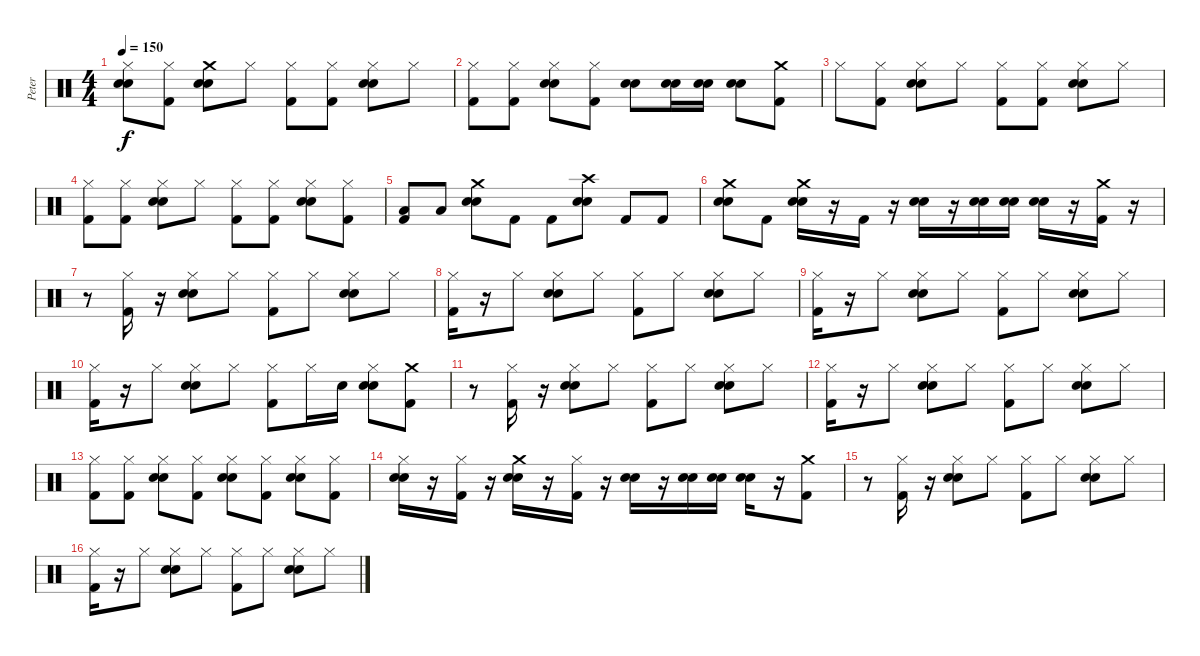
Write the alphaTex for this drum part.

\track ("Peter" "Peter") {instrument percussion}
\staff {score}
\articulation defaults
\ts (4 4)
\tempo 150
\clef neutral
\ks c
("Snare (hit) 2" "Electric Snare (hit)" "Hi-Hat (closed)").8{dy f} ("Hi-Hat (closed)" "Kick (hit) 2").8 ("Crash medium (hit)" "Snare (hit) 2" "Electric Snare (hit)").8 "Hi-Hat (closed)".8 ("Hi-Hat (closed)" "Kick (hit) 2").8 ("Hi-Hat (closed)" "Kick (hit) 2").8 ("Hi-Hat (closed)" "Snare (hit) 2" "Electric Snare (hit)").8 "Hi-Hat (closed)".8 |
("Kick (hit) 2" "Hi-Hat (closed)").8 ("Hi-Hat (closed)" "Kick (hit) 2").8 ("Hi-Hat (closed)" "Snare (hit) 2" "Electric Snare (hit)").8 ("Kick (hit) 2" "Hi-Hat (closed)").8 ("Snare (hit) 2" "Electric Snare (hit)").8 ("Electric Snare (hit)" "Snare (hit) 2").16 ("Electric Snare (hit)" "Snare (hit) 2").16 ("Snare (hit) 2" "Electric Snare (hit)").8 ("Kick (hit) 2" "Crash medium (hit)").8 |
"Hi-Hat (closed)".8 ("Hi-Hat (closed)" "Kick (hit) 2").8 ("Hi-Hat (closed)" "Snare (hit) 2" "Electric Snare (hit)").8 "Hi-Hat (closed)".8 ("Hi-Hat (closed)" "Kick (hit) 2").8 ("Hi-Hat (closed)" "Kick (hit) 2").8 ("Hi-Hat (closed)" "Snare (hit) 2" "Electric Snare (hit)").8 "Hi-Hat (closed)".8 |
("Kick (hit) 2" "Hi-Hat (closed)").8 ("Hi-Hat (closed)" "Kick (hit) 2").8 ("Hi-Hat (closed)" "Snare (hit) 2" "Electric Snare (hit)").8 "Hi-Hat (closed)".8 ("Hi-Hat (closed)" "Kick (hit) 2").8 ("Hi-Hat (closed)" "Kick (hit) 2").8 ("Hi-Hat (closed)" "Snare (hit) 2" "Electric Snare (hit)").8 ("Kick (hit) 2" "Hi-Hat (closed)").8 |
("Kick (hit) 2" "Low Floor Tom (hit)").8 "Low Floor Tom (hit)".8 ("Electric Snare (hit)" "Crash medium (hit)" "Snare (hit) 2").8 "Kick (hit) 2".8 "Kick (hit) 2".8 ("Electric Snare (hit)" "Crash high (hit)" "Snare (hit) 2").8 "Kick (hit) 2".8 "Kick (hit) 2".8 |
("Crash medium (hit)" "Snare (hit) 2" "Electric Snare (hit)").8 "Kick (hit) 2".8 ("Crash medium (hit)" "Electric Snare (hit)" "Snare (hit) 2").16 r.16 "Kick (hit) 2".16 r.16 ("Electric Snare (hit)" "Snare (hit) 2").16 r.16 ("Electric Snare (hit)" "Snare (hit) 2").16 ("Electric Snare (hit)" "Snare (hit) 2").16 ("Electric Snare (hit)" "Snare (hit) 2").16 r.16 ("Crash medium (hit)" "Kick (hit) 2").16 r.16 |
r.8 ("Hi-Hat (closed)" "Kick (hit) 2").16 r.16 ("Hi-Hat (closed)" "Electric Snare (hit)" "Snare (hit) 2").8 "Hi-Hat (closed)".8 ("Hi-Hat (closed)" "Kick (hit) 2").8 "Hi-Hat (closed)".8 ("Hi-Hat (closed)" "Electric Snare (hit)" "Snare (hit) 2").8 "Hi-Hat (closed)".8 |
("Hi-Hat (closed)" "Kick (hit) 2").16 r.16 "Hi-Hat (closed)".8 ("Electric Snare (hit)" "Snare (hit) 2" "Hi-Hat (closed)").8 "Hi-Hat (closed)".8 ("Kick (hit) 2" "Hi-Hat (closed)").8 "Hi-Hat (closed)".8 ("Electric Snare (hit)" "Snare (hit) 2" "Hi-Hat (closed)").8 "Hi-Hat (closed)".8 |
("Hi-Hat (closed)" "Kick (hit) 2").16 r.16 "Hi-Hat (closed)".8 ("Electric Snare (hit)" "Hi-Hat (closed)" "Snare (hit) 2").8 "Hi-Hat (closed)".8 ("Hi-Hat (closed)" "Kick (hit) 2").8 "Hi-Hat (closed)".8 ("Hi-Hat (closed)" "Electric Snare (hit)" "Snare (hit) 2").8 "Hi-Hat (closed)".8 |
("Kick (hit) 2" "Hi-Hat (closed)").16 r.16 "Hi-Hat (closed)".8 ("Electric Snare (hit)" "Hi-Hat (closed)" "Snare (hit) 2").8 "Hi-Hat (closed)".8 ("Hi-Hat (closed)" "Kick (hit) 2").8 "Hi-Hat (closed)".16 "Snare (hit) 2".16 ("Hi-Hat (closed)" "Electric Snare (hit)" "Snare (hit) 2").8 ("Kick (hit) 2" "Crash medium (hit)").8 |
r.8 ("Hi-Hat (closed)" "Kick (hit) 2").16 r.16 ("Hi-Hat (closed)" "Electric Snare (hit)" "Snare (hit) 2").8 "Hi-Hat (closed)".8 ("Hi-Hat (closed)" "Kick (hit) 2").8 "Hi-Hat (closed)".8 ("Hi-Hat (closed)" "Electric Snare (hit)" "Snare (hit) 2").8 "Hi-Hat (closed)".8 |
("Hi-Hat (closed)" "Kick (hit) 2").16 r.16 "Hi-Hat (closed)".8 ("Electric Snare (hit)" "Snare (hit) 2" "Hi-Hat (closed)").8 "Hi-Hat (closed)".8 ("Kick (hit) 2" "Hi-Hat (closed)").8 "Hi-Hat (closed)".8 ("Electric Snare (hit)" "Snare (hit) 2" "Hi-Hat (closed)").8 "Hi-Hat (closed)".8 |
("Hi-Hat (closed)" "Kick (hit) 2").8 ("Hi-Hat (closed)" "Kick (hit) 2").8 ("Hi-Hat (closed)" "Electric Snare (hit)" "Snare (hit) 2").8 ("Hi-Hat (closed)" "Kick (hit) 2").8 ("Hi-Hat (closed)" "Electric Snare (hit)" "Snare (hit) 2").8 ("Hi-Hat (closed)" "Kick (hit) 2").8 ("Hi-Hat (closed)" "Electric Snare (hit)" "Snare (hit) 2").8 ("Hi-Hat (closed)" "Kick (hit) 2").8 |
("Hi-Hat (closed)" "Snare (hit) 2" "Electric Snare (hit)").16 r.16 ("Hi-Hat (closed)" "Kick (hit) 2").16 r.16 ("Crash medium (hit)" "Snare (hit) 2" "Electric Snare (hit)").16 r.16 ("Hi-Hat (closed)" "Kick (hit) 2").16 r.16 ("Snare (hit) 2" "Electric Snare (hit)").16 r.16 ("Snare (hit) 2" "Electric Snare (hit)").16 ("Snare (hit) 2" "Electric Snare (hit)").16 ("Snare (hit) 2" "Electric Snare (hit)").16 r.16 ("Crash medium (hit)" "Kick (hit) 2").8 |
r.8 ("Hi-Hat (closed)" "Kick (hit) 2").16 r.16 ("Hi-Hat (closed)" "Electric Snare (hit)" "Snare (hit) 2").8 "Hi-Hat (closed)".8 ("Hi-Hat (closed)" "Kick (hit) 2").8 "Hi-Hat (closed)".8 ("Hi-Hat (closed)" "Electric Snare (hit)" "Snare (hit) 2").8 "Hi-Hat (closed)".8 |
("Hi-Hat (closed)" "Kick (hit) 2").16 r.16 "Hi-Hat (closed)".8 ("Electric Snare (hit)" "Snare (hit) 2" "Hi-Hat (closed)").8 "Hi-Hat (closed)".8 ("Kick (hit) 2" "Hi-Hat (closed)").8 "Hi-Hat (closed)".8 ("Electric Snare (hit)" "Snare (hit) 2" "Hi-Hat (closed)").8 "Hi-Hat (closed)".8
